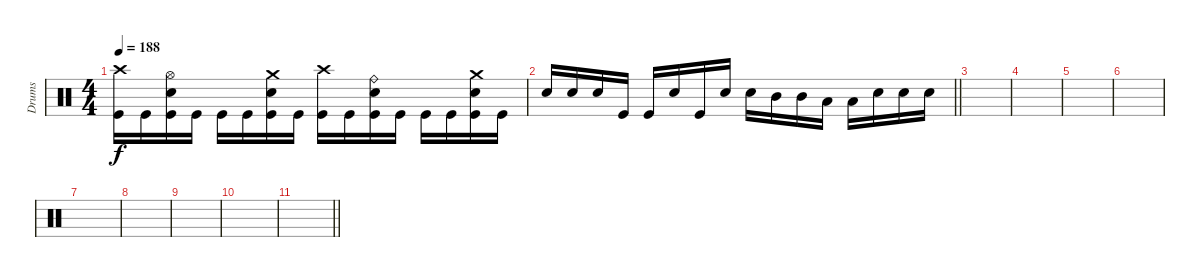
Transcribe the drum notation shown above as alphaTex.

\track ("Drums" "Drums") {instrument percussion}
\staff
\articulation defaults
\ts (4 4)
\tempo 188
\clef neutral
\ks c
("Crash high (hit)" "Kick (hit)").16{dy f} "Kick (hit)".16 ("Hi-Hat (open)" "Electric Snare (hit)" "Kick (hit)").16 "Kick (hit)".16 "Kick (hit)".16 "Kick (hit)".16 ("Crash medium (hit)" "Electric Snare (hit)" "Kick (hit)").16 "Kick (hit)".16 ("Crash high (hit)" "Kick (hit)").16 "Kick (hit)".16 ("Ride (bell)" "Electric Snare (hit)" "Kick (hit)").16 "Kick (hit)".16 "Kick (hit)".16 "Kick (hit)".16 ("Crash medium (hit)" "Electric Snare (hit)" "Kick (hit)").16 "Kick (hit)".16 |
\barLineRight lightlight "Electric Snare (hit)".16 "Electric Snare (hit)".16 "Electric Snare (hit)".16 "Kick (hit)".16 "Kick (hit)".16 "Electric Snare (hit)".16 "Kick (hit)".16 "Electric Snare (hit)".16 "Electric Snare (hit)".16 "Mid Tom (hit)".16 "Mid Tom (hit)".16 "Low Tom (hit)".16 "Low Tom (hit)".16 "Electric Snare (hit)".16 "Electric Snare (hit)".16 "Electric Snare (hit)".16
|
|
|
|
|
|
|
|
|
\barLineRight lightlight
